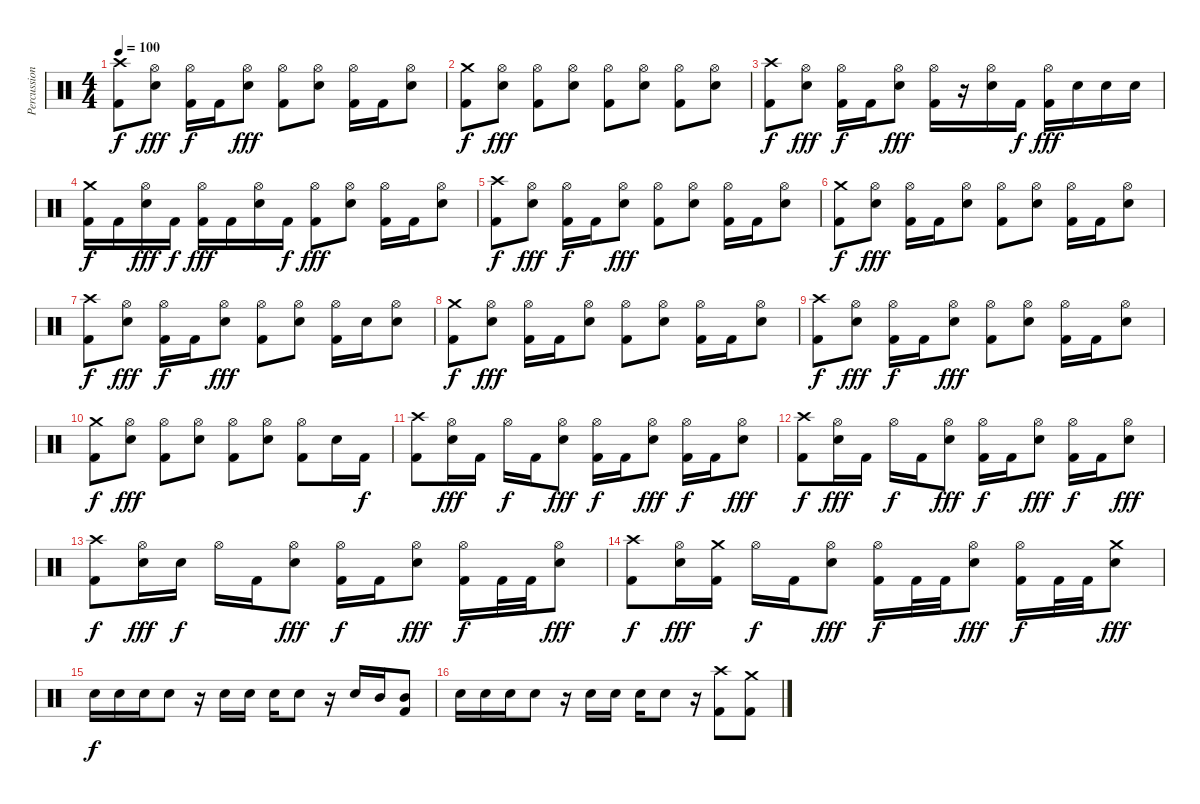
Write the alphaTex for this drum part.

\track ("Percussion" "Percussion") {instrument percussion}
\staff {score}
\articulation defaults
\ts (4 4)
\tempo 100
\clef neutral
\ks c
("Crash high (hit)" "Kick (hit) 2").8{dy f} ("Hi-Hat (open)" "Electric Snare (hit)").8{dy fff} ("Hi-Hat (open)" "Kick (hit) 2").16{dy f} "Kick (hit) 2".16 ("Hi-Hat (open)" "Electric Snare (hit)").8{dy fff} ("Hi-Hat (open)" "Kick (hit) 2").8 ("Hi-Hat (open)" "Electric Snare (hit)").8 ("Hi-Hat (open)" "Kick (hit) 2").16 "Kick (hit) 2".16 ("Hi-Hat (open)" "Electric Snare (hit)").8 |
("Crash medium (hit)" "Kick (hit) 2").8{dy f} ("Hi-Hat (open)" "Electric Snare (hit)").8{dy fff} ("Hi-Hat (open)" "Kick (hit) 2").8 ("Hi-Hat (open)" "Electric Snare (hit)").8 ("Hi-Hat (open)" "Kick (hit) 2").8 ("Hi-Hat (open)" "Electric Snare (hit)").8 ("Hi-Hat (open)" "Kick (hit) 2").8 ("Hi-Hat (open)" "Electric Snare (hit)").8 |
("Crash high (hit)" "Kick (hit) 2").8{dy f} ("Hi-Hat (open)" "Electric Snare (hit)").8{dy fff} ("Hi-Hat (open)" "Kick (hit) 2").16{dy f} "Kick (hit) 2".16 ("Hi-Hat (open)" "Electric Snare (hit)").8{dy fff} ("Hi-Hat (open)" "Kick (hit) 2").16 r.16 ("Hi-Hat (open)" "Electric Snare (hit)").16 "Kick (hit) 2".16{dy f} ("Hi-Hat (open)" "Kick (hit) 2").16{dy fff} "Electric Snare (hit)".16 "Electric Snare (hit)".16 "Electric Snare (hit)".16 |
("Crash medium (hit)" "Kick (hit) 2").16{dy f} "Kick (hit) 2".16 ("Hi-Hat (open)" "Electric Snare (hit)").16{dy fff} "Kick (hit) 2".16{dy f} ("Hi-Hat (open)" "Kick (hit) 2").16{dy fff} "Kick (hit) 2".16 ("Hi-Hat (open)" "Electric Snare (hit)").16 "Kick (hit) 2".16{dy f} ("Hi-Hat (open)" "Kick (hit) 2").8{dy fff} ("Hi-Hat (open)" "Electric Snare (hit)").8 ("Hi-Hat (open)" "Kick (hit) 2").16 "Kick (hit) 2".16 ("Hi-Hat (open)" "Electric Snare (hit)").8 |
("Crash high (hit)" "Kick (hit) 2").8{dy f} ("Hi-Hat (open)" "Electric Snare (hit)").8{dy fff} ("Hi-Hat (open)" "Kick (hit) 2").16{dy f} "Kick (hit) 2".16 ("Hi-Hat (open)" "Electric Snare (hit)").8{dy fff} ("Hi-Hat (open)" "Kick (hit) 2").8 ("Hi-Hat (open)" "Electric Snare (hit)").8 ("Hi-Hat (open)" "Kick (hit) 2").16 "Kick (hit) 2".16 ("Hi-Hat (open)" "Electric Snare (hit)").8 |
("Crash medium (hit)" "Kick (hit) 2").8{dy f} ("Hi-Hat (open)" "Electric Snare (hit)").8{dy fff} ("Hi-Hat (open)" "Kick (hit) 2").16 "Kick (hit) 2".16 ("Hi-Hat (open)" "Electric Snare (hit)").8 ("Hi-Hat (open)" "Kick (hit) 2").8 ("Hi-Hat (open)" "Electric Snare (hit)").8 ("Hi-Hat (open)" "Kick (hit) 2").16 "Kick (hit) 2".16 ("Hi-Hat (open)" "Electric Snare (hit)").8 |
("Crash high (hit)" "Kick (hit) 2").8{dy f} ("Hi-Hat (open)" "Electric Snare (hit)").8{dy fff} ("Hi-Hat (open)" "Kick (hit) 2").16{dy f} "Kick (hit) 2".16 ("Hi-Hat (open)" "Electric Snare (hit)").8{dy fff} ("Hi-Hat (open)" "Kick (hit) 2").8 ("Hi-Hat (open)" "Electric Snare (hit)").8 ("Hi-Hat (open)" "Kick (hit) 2").16 "Electric Snare (hit)".16 ("Hi-Hat (open)" "Electric Snare (hit)").8 |
("Crash medium (hit)" "Kick (hit) 2").8{dy f} ("Hi-Hat (open)" "Electric Snare (hit)").8{dy fff} ("Hi-Hat (open)" "Kick (hit) 2").16 "Kick (hit) 2".16 ("Hi-Hat (open)" "Electric Snare (hit)").8 ("Hi-Hat (open)" "Kick (hit) 2").8 ("Hi-Hat (open)" "Electric Snare (hit)").8 ("Hi-Hat (open)" "Kick (hit) 2").16 "Kick (hit) 2".16 ("Hi-Hat (open)" "Electric Snare (hit)").8 |
("Crash high (hit)" "Kick (hit) 2").8{dy f} ("Hi-Hat (open)" "Electric Snare (hit)").8{dy fff} ("Hi-Hat (open)" "Kick (hit) 2").16{dy f} "Kick (hit) 2".16 ("Hi-Hat (open)" "Electric Snare (hit)").8{dy fff} ("Hi-Hat (open)" "Kick (hit) 2").8 ("Hi-Hat (open)" "Electric Snare (hit)").8 ("Hi-Hat (open)" "Kick (hit) 2").16 "Kick (hit) 2".16 ("Hi-Hat (open)" "Electric Snare (hit)").8 |
("Crash medium (hit)" "Kick (hit) 2").8{dy f} ("Hi-Hat (open)" "Electric Snare (hit)").8{dy fff} ("Hi-Hat (open)" "Kick (hit) 2").8 ("Hi-Hat (open)" "Electric Snare (hit)").8 ("Hi-Hat (open)" "Kick (hit) 2").8 ("Hi-Hat (open)" "Electric Snare (hit)").8 ("Hi-Hat (open)" "Kick (hit) 2").8 "Electric Snare (hit)".16 "Kick (hit) 2".16{dy f} |
("Crash high (hit)" "Kick (hit) 2").8 ("Hi-Hat (open)" "Electric Snare (hit)").16{dy fff} "Kick (hit) 2".16 "Hi-Hat (open)".16{dy f} "Kick (hit) 2".16 ("Hi-Hat (open)" "Electric Snare (hit)").8{dy fff} ("Hi-Hat (open)" "Kick (hit) 2").16{dy f} "Kick (hit) 2".16 ("Hi-Hat (open)" "Electric Snare (hit)").8{dy fff} ("Hi-Hat (open)" "Kick (hit) 2").16{dy f} "Kick (hit) 2".16 ("Hi-Hat (open)" "Electric Snare (hit)").8{dy fff} |
("Crash high (hit)" "Kick (hit) 2").8{dy f} ("Hi-Hat (open)" "Electric Snare (hit)").16{dy fff} "Kick (hit) 2".16 "Hi-Hat (open)".16{dy f} "Kick (hit) 2".16 ("Hi-Hat (open)" "Electric Snare (hit)").8{dy fff} ("Hi-Hat (open)" "Kick (hit) 2").16{dy f} "Kick (hit) 2".16 ("Hi-Hat (open)" "Electric Snare (hit)").8{dy fff} ("Hi-Hat (open)" "Kick (hit) 2").16{dy f} "Kick (hit) 2".16 ("Hi-Hat (open)" "Electric Snare (hit)").8{dy fff} |
("Crash high (hit)" "Kick (hit) 2").8{dy f} ("Hi-Hat (open)" "Electric Snare (hit)").16{dy fff} "Electric Snare (hit)".16{dy f} "Hi-Hat (open)".16 "Kick (hit) 2".16 ("Hi-Hat (open)" "Electric Snare (hit)").8{dy fff} ("Hi-Hat (open)" "Kick (hit) 2").16{dy f} "Kick (hit) 2".16 ("Hi-Hat (open)" "Electric Snare (hit)").8{dy fff} ("Hi-Hat (open)" "Kick (hit) 2").16{dy f} "Kick (hit) 2".32 "Kick (hit) 2".32 ("Hi-Hat (open)" "Electric Snare (hit)").8{dy fff} |
("Crash high (hit)" "Kick (hit) 2").8{dy f} ("Hi-Hat (open)" "Electric Snare (hit)").16{dy fff} ("Crash medium (hit)" "Kick (hit) 2").16 "Hi-Hat (open)".16{dy f} "Kick (hit) 2".16 ("Hi-Hat (open)" "Electric Snare (hit)").8{dy fff} ("Hi-Hat (open)" "Kick (hit) 2").16{dy f} "Kick (hit) 2".32 "Kick (hit) 2".32 ("Hi-Hat (open)" "Electric Snare (hit)").8{dy fff} ("Hi-Hat (open)" "Kick (hit) 2").16{dy f} "Kick (hit) 2".32 "Kick (hit) 2".32 ("Crash medium (hit)" "Electric Snare (hit)").8{dy fff} |
"Electric Snare (hit)".16{dy f} "Electric Snare (hit)".16 "Electric Snare (hit)".16 "Electric Snare (hit)".8 r.16 "Electric Snare (hit)".16 "Electric Snare (hit)".16 "Electric Snare (hit)".16 "Electric Snare (hit)".8 r.16 "Electric Snare (hit)".16 "Mid Tom (hit)".16 ("Mid Tom (hit)" "Kick (hit) 2").8 |
"Electric Snare (hit)".16 "Electric Snare (hit)".16 "Electric Snare (hit)".16 "Electric Snare (hit)".8 r.16 "Electric Snare (hit)".16 "Electric Snare (hit)".16 "Electric Snare (hit)".16 "Electric Snare (hit)".8 r.16 ("Crash high (hit)" "Kick (hit) 2").8 ("Crash medium (hit)" "Kick (hit) 2").8
